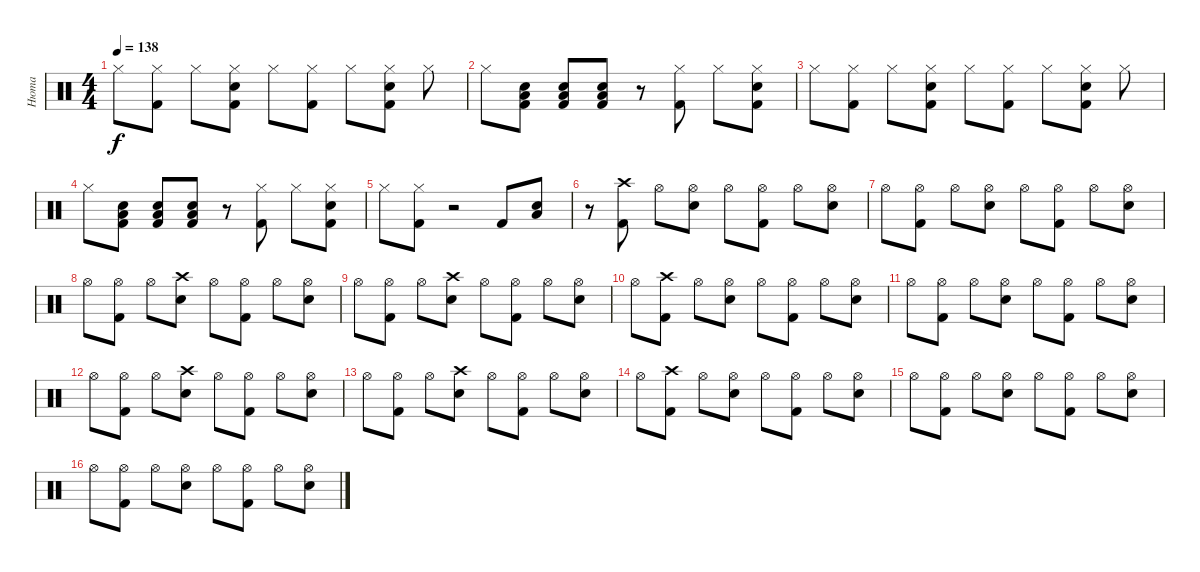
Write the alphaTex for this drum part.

\track ("Нюта" "Нюта") {instrument percussion}
\staff {score}
\articulation defaults
\ts (4 4)
\tempo 138
\clef neutral
\ks c "Hi-Hat (closed)".8{dy f}
("Kick (hit) 2" "Hi-Hat (closed)").8 "Hi-Hat (closed)".8 ("Hi-Hat (closed)" "Electric Snare (hit)" "Kick (hit) 2").8 "Hi-Hat (closed)".8 ("Kick (hit) 2" "Hi-Hat (closed)").8 "Hi-Hat (closed)".8 ("Hi-Hat (closed)" "Electric Snare (hit)" "Kick (hit) 2").8 "Hi-Hat (closed)".8 |
"Hi-Hat (closed)".8 ("Kick (hit) 2" "Electric Snare (hit)" "Low Tom (hit)").8 ("Kick (hit) 2" "Electric Snare (hit)" "Low Tom (hit)").8 ("Kick (hit) 2" "Electric Snare (hit)" "Low Tom (hit)").8 r.8 ("Kick (hit) 2" "Hi-Hat (closed)").8 "Hi-Hat (closed)".8 ("Hi-Hat (closed)" "Electric Snare (hit)" "Kick (hit) 2").8 |
"Hi-Hat (closed)".8 ("Kick (hit) 2" "Hi-Hat (closed)").8 "Hi-Hat (closed)".8 ("Hi-Hat (closed)" "Electric Snare (hit)" "Kick (hit) 2").8 "Hi-Hat (closed)".8 ("Kick (hit) 2" "Hi-Hat (closed)").8 "Hi-Hat (closed)".8 ("Hi-Hat (closed)" "Electric Snare (hit)" "Kick (hit) 2").8 "Hi-Hat (closed)".8 |
"Hi-Hat (closed)".8 ("Kick (hit) 2" "Electric Snare (hit)" "Low Tom (hit)").8 ("Kick (hit) 2" "Electric Snare (hit)" "Low Tom (hit)").8 ("Kick (hit) 2" "Electric Snare (hit)" "Low Tom (hit)").8 r.8 ("Kick (hit) 2" "Hi-Hat (closed)").8 "Hi-Hat (closed)".8 ("Hi-Hat (closed)" "Electric Snare (hit)" "Kick (hit) 2").8 |
"Hi-Hat (closed)".8 ("Kick (hit) 2" "Hi-Hat (closed)").8 r.2 "Kick (hit) 2".8 ("Electric Snare (hit)" "Low Tom (hit)").8 |
r.8 ("Crash high (hit)" "Kick (hit) 2").8 "Hi-Hat (open)".8 ("Hi-Hat (open)" "Snare (hit) 2").8 "Hi-Hat (open)".8 ("Hi-Hat (open)" "Kick (hit) 2").8 "Hi-Hat (open)".8 ("Hi-Hat (open)" "Snare (hit) 2").8 |
"Hi-Hat (open)".8 ("Hi-Hat (open)" "Kick (hit) 2").8 "Hi-Hat (open)".8 ("Hi-Hat (open)" "Snare (hit) 2").8 "Hi-Hat (open)".8 ("Hi-Hat (open)" "Kick (hit) 2").8 "Hi-Hat (open)".8 ("Hi-Hat (open)" "Snare (hit) 2").8 |
"Hi-Hat (open)".8 ("Hi-Hat (open)" "Kick (hit) 2").8 "Hi-Hat (open)".8 ("Crash high (hit)" "Snare (hit) 2").8 "Hi-Hat (open)".8 ("Hi-Hat (open)" "Kick (hit) 2").8 "Hi-Hat (open)".8 ("Hi-Hat (open)" "Snare (hit) 2").8 |
"Hi-Hat (open)".8 ("Hi-Hat (open)" "Kick (hit) 2").8 "Hi-Hat (open)".8 ("Crash high (hit)" "Snare (hit) 2").8 "Hi-Hat (open)".8 ("Hi-Hat (open)" "Kick (hit) 2").8 "Hi-Hat (open)".8 ("Hi-Hat (open)" "Snare (hit) 2").8 |
"Hi-Hat (open)".8 ("Crash high (hit)" "Kick (hit) 2").8 "Hi-Hat (open)".8 ("Hi-Hat (open)" "Snare (hit) 2").8 "Hi-Hat (open)".8 ("Hi-Hat (open)" "Kick (hit) 2").8 "Hi-Hat (open)".8 ("Hi-Hat (open)" "Snare (hit) 2").8 |
"Hi-Hat (open)".8 ("Hi-Hat (open)" "Kick (hit) 2").8 "Hi-Hat (open)".8 ("Hi-Hat (open)" "Snare (hit) 2").8 "Hi-Hat (open)".8 ("Hi-Hat (open)" "Kick (hit) 2").8 "Hi-Hat (open)".8 ("Hi-Hat (open)" "Snare (hit) 2").8 |
"Hi-Hat (open)".8 ("Hi-Hat (open)" "Kick (hit) 2").8 "Hi-Hat (open)".8 ("Crash high (hit)" "Snare (hit) 2").8 "Hi-Hat (open)".8 ("Hi-Hat (open)" "Kick (hit) 2").8 "Hi-Hat (open)".8 ("Hi-Hat (open)" "Snare (hit) 2").8 |
"Hi-Hat (open)".8 ("Hi-Hat (open)" "Kick (hit) 2").8 "Hi-Hat (open)".8 ("Crash high (hit)" "Snare (hit) 2").8 "Hi-Hat (open)".8 ("Hi-Hat (open)" "Kick (hit) 2").8 "Hi-Hat (open)".8 ("Hi-Hat (open)" "Snare (hit) 2").8 |
"Hi-Hat (open)".8 ("Crash high (hit)" "Kick (hit) 2").8 "Hi-Hat (open)".8 ("Hi-Hat (open)" "Snare (hit) 2").8 "Hi-Hat (open)".8 ("Hi-Hat (open)" "Kick (hit) 2").8 "Hi-Hat (open)".8 ("Hi-Hat (open)" "Snare (hit) 2").8 |
"Hi-Hat (open)".8 ("Hi-Hat (open)" "Kick (hit) 2").8 "Hi-Hat (open)".8 ("Hi-Hat (open)" "Snare (hit) 2").8 "Hi-Hat (open)".8 ("Hi-Hat (open)" "Kick (hit) 2").8 "Hi-Hat (open)".8 ("Hi-Hat (open)" "Snare (hit) 2").8 |
"Hi-Hat (open)".8 ("Hi-Hat (open)" "Kick (hit) 2").8 "Hi-Hat (open)".8 ("Hi-Hat (open)" "Snare (hit) 2").8 "Hi-Hat (open)".8 ("Hi-Hat (open)" "Kick (hit) 2").8 "Hi-Hat (open)".8 ("Hi-Hat (open)" "Snare (hit) 2").8
